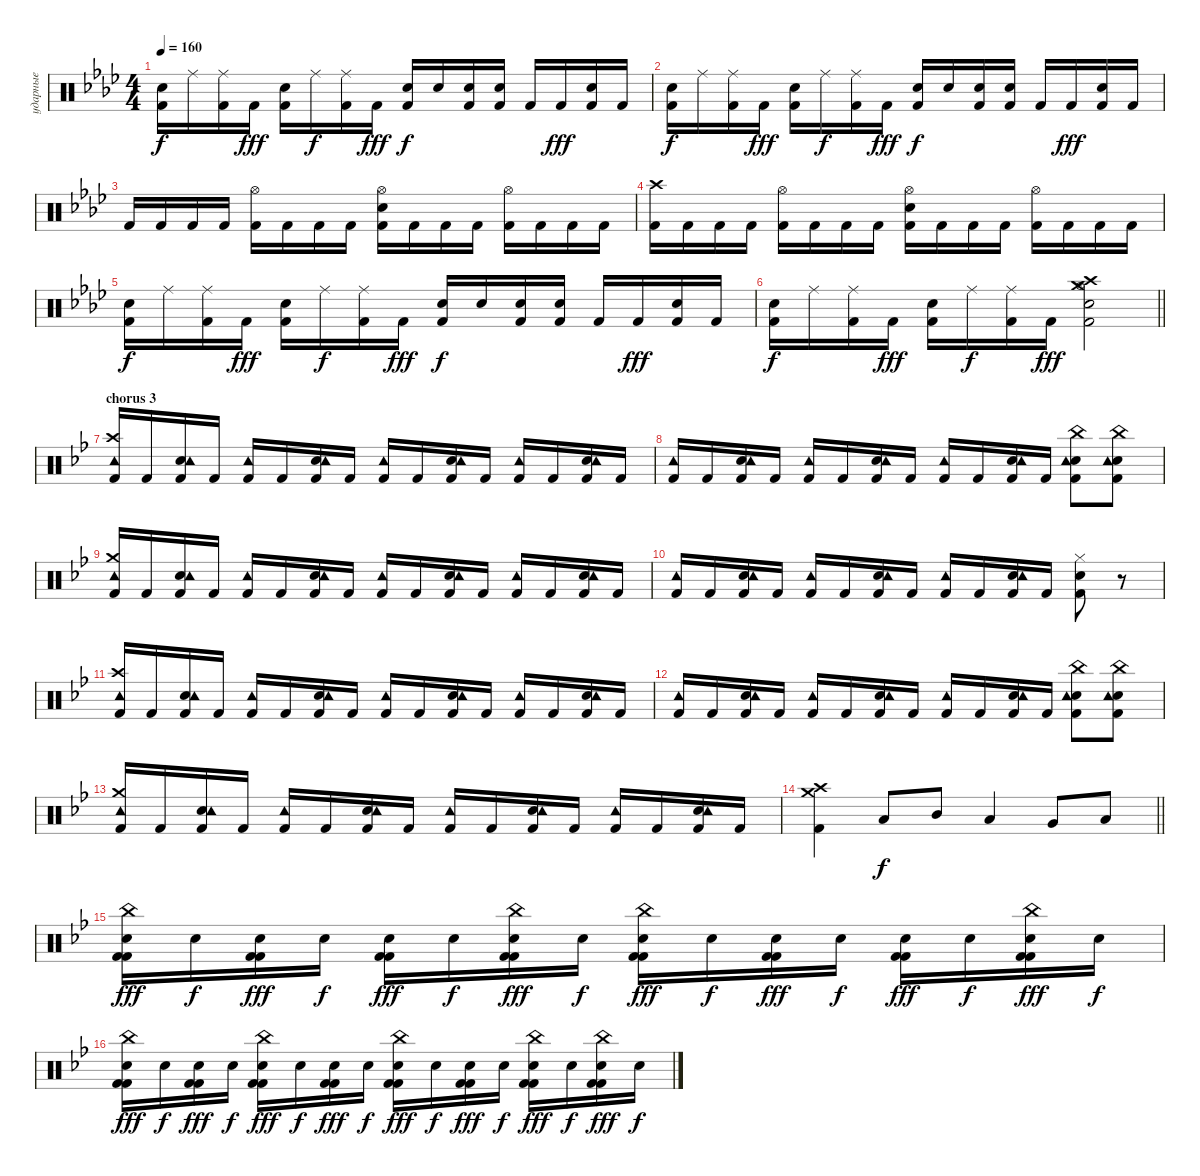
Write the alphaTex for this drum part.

\track ("ударные" "ударные") {instrument percussion}
\staff {score}
\articulation defaults
\ts (4 4)
\tempo 160
\clef neutral
\ks fminor
("Kick (hit) 2" "Electric Snare (hit)").16{dy f} "Ride (middle)".16 ("Kick (hit) 2" "Ride (middle)").16 "Kick (hit) 2".16{dy fff} ("Kick (hit) 2" "Electric Snare (hit)").16 "Ride (middle)".16{dy f} ("Kick (hit) 2" "Ride (middle)").16 "Kick (hit) 2".16{dy fff} ("Kick (hit) 2" "Electric Snare (hit)").16{dy f} "Electric Snare (hit)".16 ("Kick (hit) 2" "Electric Snare (hit)").16 ("Kick (hit) 2" "Electric Snare (hit)").16 "Kick (hit) 2".16 "Kick (hit) 2".16{dy fff} ("Kick (hit) 2" "Electric Snare (hit)").16 "Kick (hit) 2".16 |
("Kick (hit) 2" "Electric Snare (hit)").16{dy f} "Ride (middle)".16 ("Kick (hit) 2" "Ride (middle)").16 "Kick (hit) 2".16{dy fff} ("Kick (hit) 2" "Electric Snare (hit)").16 "Ride (middle)".16{dy f} ("Kick (hit) 2" "Ride (middle)").16 "Kick (hit) 2".16{dy fff} ("Kick (hit) 2" "Electric Snare (hit)").16{dy f} "Electric Snare (hit)".16 ("Kick (hit) 2" "Electric Snare (hit)").16 ("Kick (hit) 2" "Electric Snare (hit)").16 "Kick (hit) 2".16 "Kick (hit) 2".16{dy fff} ("Kick (hit) 2" "Electric Snare (hit)").16 "Kick (hit) 2".16 |
"Kick (hit) 2".16 "Kick (hit) 2".16 "Kick (hit) 2".16 "Kick (hit) 2".16 ("Hi-Hat (open)" "Kick (hit) 2").16 "Kick (hit) 2".16 "Kick (hit) 2".16 "Kick (hit) 2".16 ("Electric Snare (hit)" "Hi-Hat (open)" "Kick (hit) 2").16 "Kick (hit) 2".16 "Kick (hit) 2".16 "Kick (hit) 2".16 ("Hi-Hat (open)" "Kick (hit) 2").16 "Kick (hit) 2".16 "Kick (hit) 2".16 "Kick (hit) 2".16 |
("Crash high (hit)" "Kick (hit) 2").16 "Kick (hit) 2".16 "Kick (hit) 2".16 "Kick (hit) 2".16 ("Hi-Hat (open)" "Kick (hit) 2").16 "Kick (hit) 2".16 "Kick (hit) 2".16 "Kick (hit) 2".16 ("Electric Snare (hit)" "Hi-Hat (open)" "Kick (hit) 2").16 "Kick (hit) 2".16 "Kick (hit) 2".16 "Kick (hit) 2".16 ("Hi-Hat (open)" "Kick (hit) 2").16 "Kick (hit) 2".16 "Kick (hit) 2".16 "Kick (hit) 2".16 |
("Kick (hit) 2" "Electric Snare (hit)").16{dy f} "Ride (middle)".16 ("Kick (hit) 2" "Ride (middle)").16 "Kick (hit) 2".16{dy fff} ("Kick (hit) 2" "Electric Snare (hit)").16 "Ride (middle)".16{dy f} ("Kick (hit) 2" "Ride (middle)").16 "Kick (hit) 2".16{dy fff} ("Kick (hit) 2" "Electric Snare (hit)").16{dy f} "Electric Snare (hit)".16 ("Kick (hit) 2" "Electric Snare (hit)").16 ("Kick (hit) 2" "Electric Snare (hit)").16 "Kick (hit) 2".16 "Kick (hit) 2".16{dy fff} ("Kick (hit) 2" "Electric Snare (hit)").16 "Kick (hit) 2".16 |
\barLineRight lightlight
("Kick (hit) 2" "Electric Snare (hit)").16{dy f} "Ride (middle)".16 ("Kick (hit) 2" "Ride (middle)").16 "Kick (hit) 2".16{dy fff} ("Kick (hit) 2" "Electric Snare (hit)").16 "Ride (middle)".16{dy f} ("Kick (hit) 2" "Ride (middle)").16 "Kick (hit) 2".16{dy fff} ("Crash medium (hit)" "Crash high (hit)" "Electric Snare (hit)" "Hi-Hat (open)" "Kick (hit) 2").2 |
\section ("" "chorus 3")
\ks gminor
("Crash high (hit)" "Tambourine (hit)" "Kick (hit) 2").16 "Kick (hit) 2".16 ("Electric Snare (hit)" "Tambourine (hit)" "Kick (hit) 2").16 "Kick (hit) 2".16 ("Tambourine (hit)" "Kick (hit) 2").16 "Kick (hit) 2".16 ("Electric Snare (hit)" "Tambourine (hit)" "Kick (hit) 2").16 "Kick (hit) 2".16 ("Tambourine (hit)" "Kick (hit) 2").16 "Kick (hit) 2".16 ("Electric Snare (hit)" "Tambourine (hit)" "Kick (hit) 2").16 "Kick (hit) 2".16 ("Tambourine (hit)" "Kick (hit) 2").16 "Kick (hit) 2".16 ("Electric Snare (hit)" "Tambourine (hit)" "Kick (hit) 2").16 "Kick (hit) 2".16 |
("Tambourine (hit)" "Kick (hit) 2").16 "Kick (hit) 2".16 ("Electric Snare (hit)" "Tambourine (hit)" "Kick (hit) 2").16 "Kick (hit) 2".16 ("Tambourine (hit)" "Kick (hit) 2").16 "Kick (hit) 2".16 ("Electric Snare (hit)" "Tambourine (hit)" "Kick (hit) 2").16 "Kick (hit) 2".16 ("Tambourine (hit)" "Kick (hit) 2").16 "Kick (hit) 2".16 ("Electric Snare (hit)" "Tambourine (hit)" "Kick (hit) 2").16 "Kick (hit) 2".16 ("China (hit)" "Electric Snare (hit)" "Tambourine (hit)" "Kick (hit) 2").8 ("China (hit)" "Electric Snare (hit)" "Tambourine (hit)" "Kick (hit) 2").8 |
("Crash medium (hit)" "Tambourine (hit)" "Kick (hit) 2").16 "Kick (hit) 2".16 ("Electric Snare (hit)" "Tambourine (hit)" "Kick (hit) 2").16 "Kick (hit) 2".16 ("Tambourine (hit)" "Kick (hit) 2").16 "Kick (hit) 2".16 ("Electric Snare (hit)" "Tambourine (hit)" "Kick (hit) 2").16 "Kick (hit) 2".16 ("Tambourine (hit)" "Kick (hit) 2").16 "Kick (hit) 2".16 ("Electric Snare (hit)" "Tambourine (hit)" "Kick (hit) 2").16 "Kick (hit) 2".16 ("Tambourine (hit)" "Kick (hit) 2").16 "Kick (hit) 2".16 ("Electric Snare (hit)" "Tambourine (hit)" "Kick (hit) 2").16 "Kick (hit) 2".16 |
("Tambourine (hit)" "Kick (hit) 2").16 "Kick (hit) 2".16 ("Electric Snare (hit)" "Tambourine (hit)" "Kick (hit) 2").16 "Kick (hit) 2".16 ("Tambourine (hit)" "Kick (hit) 2").16 "Kick (hit) 2".16 ("Electric Snare (hit)" "Tambourine (hit)" "Kick (hit) 2").16 "Kick (hit) 2".16 ("Tambourine (hit)" "Kick (hit) 2").16 "Kick (hit) 2".16 ("Electric Snare (hit)" "Tambourine (hit)" "Kick (hit) 2").16 "Kick (hit) 2".16 ("Electric Snare (hit)" "Hi-Hat (closed)" "Kick (hit) 2").8 r.8 |
("Crash high (hit)" "Tambourine (hit)" "Kick (hit) 2").16 "Kick (hit) 2".16 ("Electric Snare (hit)" "Tambourine (hit)" "Kick (hit) 2").16 "Kick (hit) 2".16 ("Tambourine (hit)" "Kick (hit) 2").16 "Kick (hit) 2".16 ("Electric Snare (hit)" "Tambourine (hit)" "Kick (hit) 2").16 "Kick (hit) 2".16 ("Tambourine (hit)" "Kick (hit) 2").16 "Kick (hit) 2".16 ("Electric Snare (hit)" "Tambourine (hit)" "Kick (hit) 2").16 "Kick (hit) 2".16 ("Tambourine (hit)" "Kick (hit) 2").16 "Kick (hit) 2".16 ("Electric Snare (hit)" "Tambourine (hit)" "Kick (hit) 2").16 "Kick (hit) 2".16 |
("Tambourine (hit)" "Kick (hit) 2").16 "Kick (hit) 2".16 ("Electric Snare (hit)" "Tambourine (hit)" "Kick (hit) 2").16 "Kick (hit) 2".16 ("Tambourine (hit)" "Kick (hit) 2").16 "Kick (hit) 2".16 ("Electric Snare (hit)" "Tambourine (hit)" "Kick (hit) 2").16 "Kick (hit) 2".16 ("Tambourine (hit)" "Kick (hit) 2").16 "Kick (hit) 2".16 ("Electric Snare (hit)" "Tambourine (hit)" "Kick (hit) 2").16 "Kick (hit) 2".16 ("China (hit)" "Electric Snare (hit)" "Tambourine (hit)" "Kick (hit) 2").8 ("China (hit)" "Electric Snare (hit)" "Tambourine (hit)" "Kick (hit) 2").8 |
("Crash medium (hit)" "Tambourine (hit)" "Kick (hit) 2").16 "Kick (hit) 2".16 ("Electric Snare (hit)" "Tambourine (hit)" "Kick (hit) 2").16 "Kick (hit) 2".16 ("Tambourine (hit)" "Kick (hit) 2").16 "Kick (hit) 2".16 ("Electric Snare (hit)" "Tambourine (hit)" "Kick (hit) 2").16 "Kick (hit) 2".16 ("Tambourine (hit)" "Kick (hit) 2").16 "Kick (hit) 2".16 ("Electric Snare (hit)" "Tambourine (hit)" "Kick (hit) 2").16 "Kick (hit) 2".16 ("Tambourine (hit)" "Kick (hit) 2").16 "Kick (hit) 2".16 ("Electric Snare (hit)" "Tambourine (hit)" "Kick (hit) 2").16 "Kick (hit) 2".16 |
\barLineRight lightlight
("Crash high (hit)" "Crash medium (hit)" "Kick (hit) 2").4 "Low Tom (hit)".8{dy f} "Mid Tom (hit)".8 "Low Tom (hit)".4 "Very Low Tom (hit)".8 "Low Floor Tom (hit)".8 |
("Kick (hit) 2" "Electric Snare (hit)" "Kick (hit) 2" "China (hit)").16{dy fff} "Electric Snare (hit)".16{dy f} ("Kick (hit) 2" "Electric Snare (hit)" "Kick (hit) 2").16{dy fff} "Electric Snare (hit)".16{dy f} ("Kick (hit) 2" "Electric Snare (hit)" "Kick (hit) 2").16{dy fff} "Electric Snare (hit)".16{dy f} ("Kick (hit) 2" "Electric Snare (hit)" "Kick (hit) 2" "China (hit)").16{dy fff} "Electric Snare (hit)".16{dy f} ("Kick (hit) 2" "Electric Snare (hit)" "Kick (hit) 2" "China (hit)").16{dy fff} "Electric Snare (hit)".16{dy f} ("Kick (hit) 2" "Electric Snare (hit)" "Kick (hit) 2").16{dy fff} "Electric Snare (hit)".16{dy f} ("Kick (hit) 2" "Electric Snare (hit)" "Kick (hit) 2").16{dy fff} "Electric Snare (hit)".16{dy f} ("Kick (hit) 2" "Electric Snare (hit)" "Kick (hit) 2" "China (hit)").16{dy fff} "Electric Snare (hit)".16{dy f} |
("Kick (hit) 2" "Electric Snare (hit)" "Kick (hit) 2" "China (hit)").16{dy fff} "Electric Snare (hit)".16{dy f} ("Kick (hit) 2" "Electric Snare (hit)" "Kick (hit) 2").16{dy fff} "Electric Snare (hit)".16{dy f} ("Kick (hit) 2" "Electric Snare (hit)" "Kick (hit) 2" "China (hit)").16{dy fff} "Electric Snare (hit)".16{dy f} ("Kick (hit) 2" "Electric Snare (hit)" "Kick (hit) 2").16{dy fff} "Electric Snare (hit)".16{dy f} ("Kick (hit) 2" "Electric Snare (hit)" "Kick (hit) 2" "China (hit)").16{dy fff} "Electric Snare (hit)".16{dy f} ("Kick (hit) 2" "Electric Snare (hit)" "Kick (hit) 2").16{dy fff} "Electric Snare (hit)".16{dy f} ("Kick (hit) 2" "Electric Snare (hit)" "Kick (hit) 2" "China (hit)").16{dy fff} "Electric Snare (hit)".16{dy f} ("Kick (hit) 2" "Electric Snare (hit)" "Kick (hit) 2" "China (hit)").16{dy fff} "Electric Snare (hit)".16{dy f}
